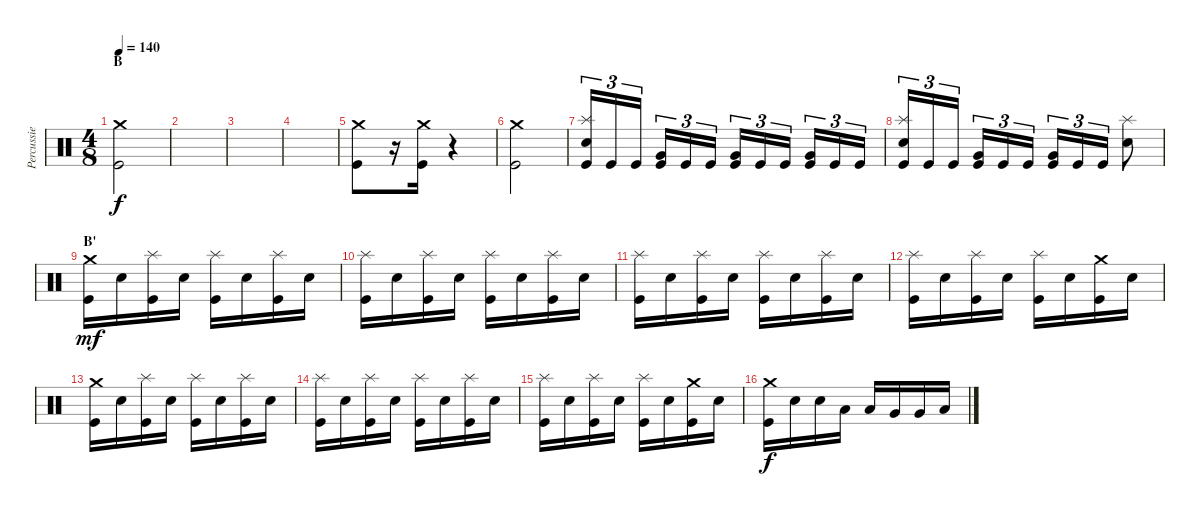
\track ("Percussie" "Percussie") {instrument percussion}
\staff {score}
\articulation defaults
\ts (4 8)
\section ("" "B")
\tempo 140
\clef neutral
\ks c
("Crash medium (hit)" "Kick (hit)").2{dy f} |
|
|
|
("Crash medium (hit)" "Kick (hit)").8 r.16 ("Crash medium (hit)" "Kick (hit)").16 r.4 |
("Crash medium (hit)" "Kick (hit)").2 |
("Splash (hit)" "Electric Snare (hit)" "Kick (hit)").16{tu (3 2)} "Kick (hit)".16{tu (3 2)} "Kick (hit)".16{tu (3 2)} ("Very Low Tom (hit)" "Kick (hit)").16{tu (3 2)} "Kick (hit)".16{tu (3 2)} "Kick (hit)".16{tu (3 2)} ("Very Low Tom (hit)" "Kick (hit)").16{tu (3 2)} "Kick (hit)".16{tu (3 2)} "Kick (hit)".16{tu (3 2)} ("Very Low Tom (hit)" "Kick (hit)").16{tu (3 2)} "Kick (hit)".16{tu (3 2)} "Kick (hit)".16{tu (3 2)} |
("Splash (hit)" "Electric Snare (hit)" "Kick (hit)").16{tu (3 2)} "Kick (hit)".16{tu (3 2)} "Kick (hit)".16{tu (3 2)} ("Very Low Tom (hit)" "Kick (hit)").16{tu (3 2)} "Kick (hit)".16{tu (3 2)} "Kick (hit)".16{tu (3 2)} ("Very Low Tom (hit)" "Kick (hit)").16{tu (3 2)} "Kick (hit)".16{tu (3 2)} "Kick (hit)".16{tu (3 2)} ("Splash (hit)" "Electric Snare (hit)").8 |
\section ("" "B'")
("Crash medium (hit)" "Kick (hit)").16{dy mf} "Electric Snare (hit)".16 ("Splash (hit)" "Kick (hit)").16 "Electric Snare (hit)".16 ("Splash (hit)" "Kick (hit)").16 "Electric Snare (hit)".16 ("Splash (hit)" "Kick (hit)").16 "Electric Snare (hit)".16 |
("Splash (hit)" "Kick (hit)").16 "Electric Snare (hit)".16 ("Splash (hit)" "Kick (hit)").16 "Electric Snare (hit)".16 ("Splash (hit)" "Kick (hit)").16 "Electric Snare (hit)".16 ("Splash (hit)" "Kick (hit)").16 "Electric Snare (hit)".16 |
("Splash (hit)" "Kick (hit)").16 "Electric Snare (hit)".16 ("Splash (hit)" "Kick (hit)").16 "Electric Snare (hit)".16 ("Splash (hit)" "Kick (hit)").16 "Electric Snare (hit)".16 ("Splash (hit)" "Kick (hit)").16 "Electric Snare (hit)".16 |
("Splash (hit)" "Kick (hit)").16 "Electric Snare (hit)".16 ("Splash (hit)" "Kick (hit)").16 "Electric Snare (hit)".16 ("Splash (hit)" "Kick (hit)").16 "Electric Snare (hit)".16 ("Crash medium (hit)" "Kick (hit)").16 "Electric Snare (hit)".16 |
("Crash medium (hit)" "Kick (hit)").16 "Electric Snare (hit)".16 ("Splash (hit)" "Kick (hit)").16 "Electric Snare (hit)".16 ("Splash (hit)" "Kick (hit)").16 "Electric Snare (hit)".16 ("Splash (hit)" "Kick (hit)").16 "Electric Snare (hit)".16 |
("Splash (hit)" "Kick (hit)").16 "Electric Snare (hit)".16 ("Splash (hit)" "Kick (hit)").16 "Electric Snare (hit)".16 ("Splash (hit)" "Kick (hit)").16 "Electric Snare (hit)".16 ("Splash (hit)" "Kick (hit)").16 "Electric Snare (hit)".16 |
("Splash (hit)" "Kick (hit)").16 "Electric Snare (hit)".16 ("Splash (hit)" "Kick (hit)").16 "Electric Snare (hit)".16 ("Splash (hit)" "Kick (hit)").16 "Electric Snare (hit)".16 ("Crash medium (hit)" "Kick (hit)").16 "Electric Snare (hit)".16 |
("Crash medium (hit)" "Kick (hit)").16{dy f} "Electric Snare (hit)".16 "Electric Snare (hit)".16 "Low Tom (hit)".16 "Low Tom (hit)".16 "Very Low Tom (hit)".16 "Very Low Tom (hit)".16 "Low Floor Tom (hit)".16
